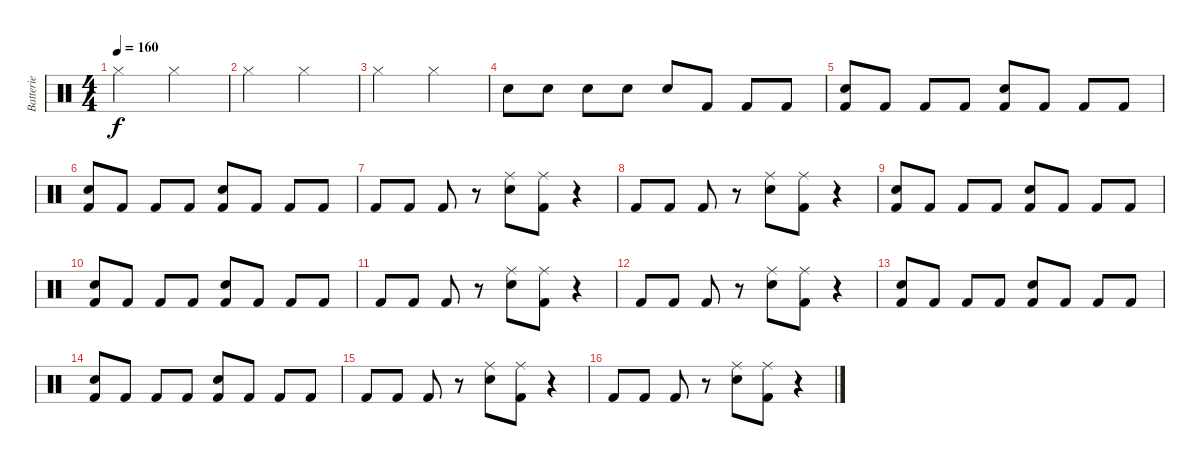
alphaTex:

\track ("Batterie" "Batterie") {instrument percussion}
\staff {score}
\articulation defaults
\ts (4 4)
\tempo 160
\clef neutral
\ks c "Hi-Hat (closed)".2{dy f} "Hi-Hat (closed)".2
|
"Hi-Hat (closed)".2 "Hi-Hat (closed)".2 |
"Hi-Hat (closed)".2 "Hi-Hat (closed)".2{volume 9} |
"Snare (hit) 2".8{volume 16} "Snare (hit) 2".8 "Snare (hit) 2".8 "Snare (hit) 2".8 "Snare (hit) 2".8 "Kick (hit) 2".8 "Kick (hit) 2".8 "Kick (hit) 2".8 |
\section ("" "")
("Kick (hit) 2" "Snare (hit) 2").8 "Kick (hit) 2".8 "Kick (hit) 2".8 "Kick (hit) 2".8 ("Kick (hit) 2" "Snare (hit) 2").8 "Kick (hit) 2".8 "Kick (hit) 2".8 "Kick (hit) 2".8 |
("Kick (hit) 2" "Snare (hit) 2").8 "Kick (hit) 2".8 "Kick (hit) 2".8 "Kick (hit) 2".8 ("Kick (hit) 2" "Snare (hit) 2").8 "Kick (hit) 2".8 "Kick (hit) 2".8 "Kick (hit) 2".8 |
"Kick (hit) 2".8 "Kick (hit) 2".8 "Kick (hit) 2".8 r.8 ("Snare (hit) 2" "Ride (middle)").8 ("Kick (hit) 2" "Ride (middle)").8 r.4 |
"Kick (hit) 2".8 "Kick (hit) 2".8 "Kick (hit) 2".8 r.8 ("Snare (hit) 2" "Ride (middle)").8 ("Kick (hit) 2" "Ride (middle)").8 r.4 |
("Kick (hit) 2" "Snare (hit) 2").8 "Kick (hit) 2".8 "Kick (hit) 2".8 "Kick (hit) 2".8 ("Kick (hit) 2" "Snare (hit) 2").8 "Kick (hit) 2".8 "Kick (hit) 2".8 "Kick (hit) 2".8 |
("Kick (hit) 2" "Snare (hit) 2").8 "Kick (hit) 2".8 "Kick (hit) 2".8 "Kick (hit) 2".8 ("Kick (hit) 2" "Snare (hit) 2").8 "Kick (hit) 2".8 "Kick (hit) 2".8 "Kick (hit) 2".8 |
"Kick (hit) 2".8 "Kick (hit) 2".8 "Kick (hit) 2".8 r.8 ("Snare (hit) 2" "Ride (middle)").8 ("Kick (hit) 2" "Ride (middle)").8 r.4 |
"Kick (hit) 2".8 "Kick (hit) 2".8 "Kick (hit) 2".8 r.8 ("Snare (hit) 2" "Ride (middle)").8 ("Kick (hit) 2" "Ride (middle)").8 r.4 |
("Kick (hit) 2" "Snare (hit) 2").8 "Kick (hit) 2".8 "Kick (hit) 2".8 "Kick (hit) 2".8 ("Kick (hit) 2" "Snare (hit) 2").8 "Kick (hit) 2".8 "Kick (hit) 2".8 "Kick (hit) 2".8 |
("Kick (hit) 2" "Snare (hit) 2").8 "Kick (hit) 2".8 "Kick (hit) 2".8 "Kick (hit) 2".8 ("Kick (hit) 2" "Snare (hit) 2").8 "Kick (hit) 2".8 "Kick (hit) 2".8 "Kick (hit) 2".8 |
"Kick (hit) 2".8 "Kick (hit) 2".8 "Kick (hit) 2".8 r.8 ("Snare (hit) 2" "Ride (middle)").8 ("Kick (hit) 2" "Ride (middle)").8 r.4 |
"Kick (hit) 2".8 "Kick (hit) 2".8 "Kick (hit) 2".8 r.8 ("Snare (hit) 2" "Ride (middle)").8 ("Kick (hit) 2" "Ride (middle)").8 r.4
